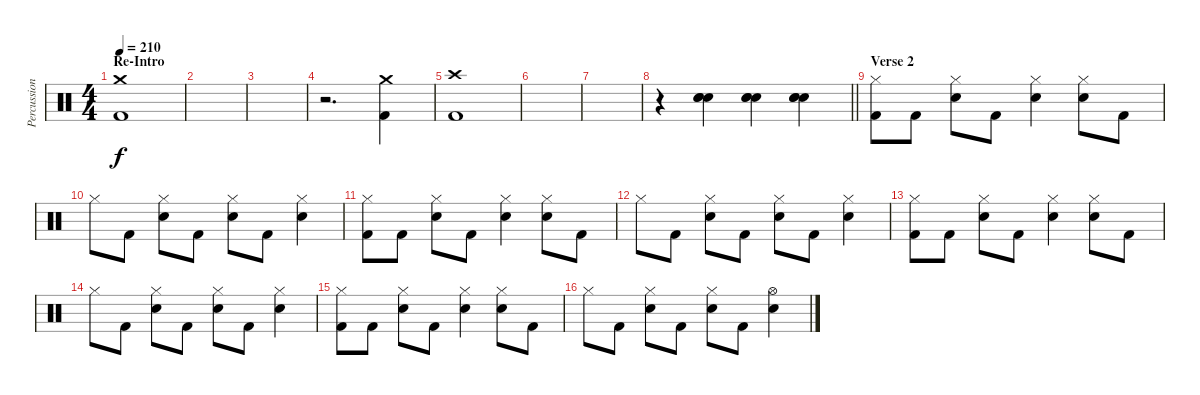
\track ("Percussion" "Percussion") {instrument percussion}
\staff {score}
\articulation defaults
\ts (4 4)
\section ("" "Re-Intro")
\tempo 210
\clef neutral
\ks c
("Crash medium (hit)" "Kick (hit) 2").1{dy f} |
|
|
r.2{d} ("Crash medium (hit)" "Kick (hit) 2").4 |
("Crash high (hit)" "Kick (hit) 2").1 |
|
|
\barLineRight lightlight
r.4 ("Hand Clap (hit)" "Hand Clap (hit)" "Hand Clap (hit)").4 ("Hand Clap (hit)" "Hand Clap (hit)" "Hand Clap (hit)").4 ("Hand Clap (hit)" "Hand Clap (hit)" "Hand Clap (hit)").4 |
\section ("" "Verse 2")
("Hi-Hat (closed)" "Kick (hit) 2").8{volume 16} "Kick (hit) 2".8 ("Hi-Hat (closed)" "Electric Snare (hit)").8 "Kick (hit) 2".8 ("Hi-Hat (closed)" "Electric Snare (hit)").4 ("Hi-Hat (closed)" "Electric Snare (hit)").8 "Kick (hit) 2".8 |
"Hi-Hat (closed)".8 "Kick (hit) 2".8 ("Hi-Hat (closed)" "Electric Snare (hit)").8 "Kick (hit) 2".8 ("Hi-Hat (closed)" "Electric Snare (hit)").8 "Kick (hit) 2".8 ("Hi-Hat (closed)" "Electric Snare (hit)").4 |
("Hi-Hat (closed)" "Kick (hit) 2").8 "Kick (hit) 2".8 ("Hi-Hat (closed)" "Electric Snare (hit)").8 "Kick (hit) 2".8 ("Hi-Hat (closed)" "Electric Snare (hit)").4 ("Hi-Hat (closed)" "Electric Snare (hit)").8 "Kick (hit) 2".8 |
"Hi-Hat (closed)".8 "Kick (hit) 2".8 ("Hi-Hat (closed)" "Electric Snare (hit)").8 "Kick (hit) 2".8 ("Hi-Hat (closed)" "Electric Snare (hit)").8 "Kick (hit) 2".8 ("Hi-Hat (closed)" "Electric Snare (hit)").4 |
("Hi-Hat (closed)" "Kick (hit) 2").8 "Kick (hit) 2".8 ("Hi-Hat (closed)" "Electric Snare (hit)").8 "Kick (hit) 2".8 ("Hi-Hat (closed)" "Electric Snare (hit)").4 ("Hi-Hat (closed)" "Electric Snare (hit)").8 "Kick (hit) 2".8 |
"Hi-Hat (closed)".8 "Kick (hit) 2".8 ("Hi-Hat (closed)" "Electric Snare (hit)").8 "Kick (hit) 2".8 ("Hi-Hat (closed)" "Electric Snare (hit)").8 "Kick (hit) 2".8 ("Hi-Hat (closed)" "Electric Snare (hit)").4 |
("Hi-Hat (closed)" "Kick (hit) 2").8 "Kick (hit) 2".8 ("Hi-Hat (closed)" "Electric Snare (hit)").8 "Kick (hit) 2".8 ("Hi-Hat (closed)" "Electric Snare (hit)").4 ("Hi-Hat (closed)" "Electric Snare (hit)").8 "Kick (hit) 2".8 |
"Hi-Hat (closed)".8 "Kick (hit) 2".8 ("Hi-Hat (closed)" "Electric Snare (hit)").8 "Kick (hit) 2".8 ("Hi-Hat (closed)" "Electric Snare (hit)").8 "Kick (hit) 2".8 ("Hi-Hat (open)" "Electric Snare (hit)").4
